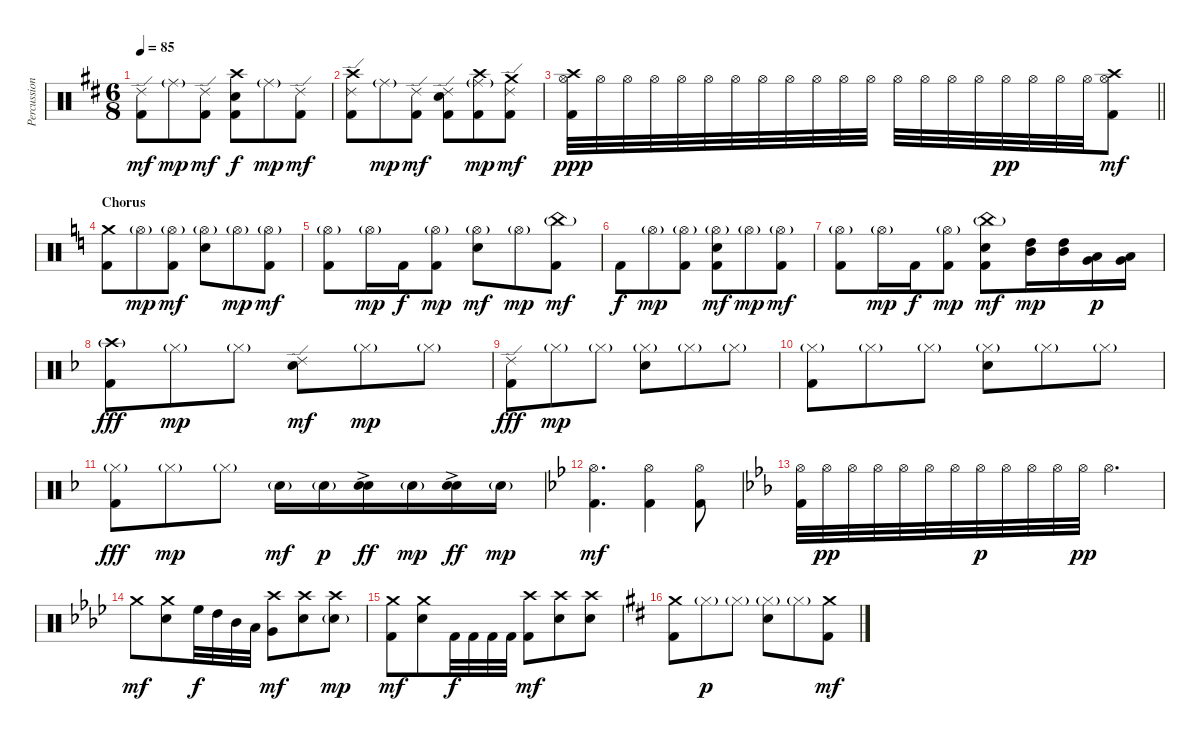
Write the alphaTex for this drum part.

\track ("Percussion (Daniele Carbonera)" "Percussion") {instrument percussion}
\staff {score}
\articulation defaults
\ts (6 8)
\tempo 85
\clef neutral
\ks bminor
("Ride (edge) 2" "Kick (hit) 2").8{dy mf} "Ride (middle)"{g}.8{dy mp} ("Ride (edge) 2" "Kick (hit) 2").8{dy mf} ("Crash high (hit)" "Electric Snare (hit)" "Kick (hit) 2").8{dy f} "Ride (middle)"{g}.8{dy mp} ("Ride (edge) 2" "Kick (hit) 2").8{dy mf} |
("Crash high (hit)" "Ride (edge) 2" "Kick (hit) 2").8 "Ride (middle)"{g}.8{dy mp} ("Ride (edge) 2" "Kick (hit) 2").8{dy mf} ("Ride (edge) 2" "Electric Snare (hit)" "Kick (hit) 2").8 ("Crash high (hit)" "Ride (middle)"{g} "Kick (hit) 2").8{dy mp} ("Crash medium (hit)" "Ride (edge) 2" "Kick (hit) 2").8{dy mf} |
\barLineRight lightlight
("Crash high (hit)" "Hi-Hat (open)" "Kick (hit) 2").32{dy ppp} "Hi-Hat (open)".32 "Hi-Hat (open)".32 "Hi-Hat (open)".32 "Hi-Hat (open)".32 "Hi-Hat (open)".32 "Hi-Hat (open)".32 "Hi-Hat (open)".32 "Hi-Hat (open)".32 "Hi-Hat (open)".32 "Hi-Hat (open)".32 "Hi-Hat (open)".32 "Hi-Hat (open)".32 "Hi-Hat (open)".32 "Hi-Hat (open)".32 "Hi-Hat (open)".32 "Hi-Hat (open)".32{dy pp} "Hi-Hat (open)".32 "Hi-Hat (open)".32 "Hi-Hat (open)".32 ("Crash high (hit)" "Hi-Hat (open)" "Kick (hit) 2").8{dy mf} |
\section ("" "Chorus")
\ks aminor
("Crash medium (hit)" "Kick (hit) 2").8 "Hi-Hat (open)"{g}.8{dy mp} ("Hi-Hat (open)"{g} "Kick (hit) 2").8{dy mf} ("Hi-Hat (open)"{g} "Electric Snare (hit)").8 "Hi-Hat (open)"{g}.8{dy mp} ("Hi-Hat (open)"{g} "Kick (hit) 2").8{dy mf} |
("Hi-Hat (open)"{g} "Kick (hit) 2").8 "Hi-Hat (open)"{g}.16{dy mp} "Kick (hit) 2".16{dy f} ("Hi-Hat (open)"{g} "Kick (hit) 2").8{dy mp} ("Hi-Hat (open)"{g} "Electric Snare (hit)").8{dy mf} "Hi-Hat (open)"{g}.8{dy mp} ("China (hit)"{g} "Kick (hit) 2").8{dy mf} |
"Kick (hit) 2".8{dy f} "Hi-Hat (open)"{g}.8{dy mp} ("Hi-Hat (open)"{g} "Kick (hit) 2").8 ("Hi-Hat (open)"{g} "Electric Snare (hit)" "Kick (hit) 2").8{dy mf} "Hi-Hat (open)"{g}.8{dy mp} ("Hi-Hat (open)"{g} "Kick (hit) 2").8{dy mf} |
("Hi-Hat (open)"{g} "Kick (hit) 2").8 "Hi-Hat (open)"{g}.16{dy mp} "Kick (hit) 2".16{dy f} ("Hi-Hat (open)"{g} "Kick (hit) 2").8{dy mp} ("China (hit)"{g} "Electric Snare (hit)" "Kick (hit) 2").8{dy mf} ("High Tom (hit)" "Mid Tom (hit)").16{dy mp} ("High Tom (hit)" "Mid Tom (hit)").16 ("Low Tom (hit)" "Very Low Tom (hit)").16{dy p} ("Low Tom (hit)" "Very Low Tom (hit)").16 |
\ks dminor
("Crash high (hit)"{g} "Kick (hit) 2").8{dy fff} "Hi-Hat (closed)"{g}.8{dy mp} "Hi-Hat (closed)"{g}.8 ("Ride (edge) 2" "Electric Snare (hit)").8{dy mf} "Hi-Hat (closed)"{g}.8{dy mp} "Hi-Hat (closed)"{g}.8 |
("Ride (edge) 2" "Kick (hit) 2").8{dy fff} "Hi-Hat (closed)"{g}.8{dy mp} "Hi-Hat (closed)"{g}.8 ("Hi-Hat (closed)"{g} "Electric Snare (hit)").8 "Hi-Hat (closed)"{g}.8 "Hi-Hat (closed)"{g}.8 |
("Hi-Hat (closed)"{g} "Kick (hit) 2").8 "Hi-Hat (closed)"{g}.8 "Hi-Hat (closed)"{g}.8 ("Hi-Hat (closed)"{g} "Electric Snare (hit)").8 "Hi-Hat (closed)"{g}.8 "Hi-Hat (closed)"{g}.8 |
("Hi-Hat (closed)"{g} "Kick (hit) 2").8{dy fff} "Hi-Hat (closed)"{g}.8{dy mp} "Hi-Hat (closed)"{g}.8 "Electric Snare (hit)"{g}.16{dy mf} "Electric Snare (hit)"{g}.16{dy p} ("Electric Snare (hit)" "Electric Snare (hit)"{ac}).16{dy ff} "Electric Snare (hit)"{g}.16{dy mp} ("Electric Snare (hit)" "Electric Snare (hit)"{ac}).16{dy ff} "Electric Snare (hit)"{g}.16{dy mp} |
\ks gminor
("Hi-Hat (open)" "Kick (hit) 2").4{d dy mf} ("Hi-Hat (open)" "Kick (hit) 2").4 ("Hi-Hat (open)" "Kick (hit) 2").8 |
\ks cminor
("Hi-Hat (open)" "Kick (hit) 2").32 "Hi-Hat (open)".32{dy pp} "Hi-Hat (open)".32 "Hi-Hat (open)".32 "Hi-Hat (open)".32 "Hi-Hat (open)".32 "Hi-Hat (open)".32 "Hi-Hat (open)".32{dy p} "Hi-Hat (open)".32 "Hi-Hat (open)".32 "Hi-Hat (open)".32 "Hi-Hat (open)".32{dy pp} "Hi-Hat (open)".4{d} |
\ks fminor "Crash medium (hit)".8{dy mf}
("Crash medium (hit)" "Electric Snare (hit)").8 "High Floor Tom (hit)".32{dy f} "High Tom (hit)".32 "Mid Tom (hit)".32 "Low Tom (hit)".32 ("Crash high (hit)" "Very Low Tom (hit)").8{dy mf} ("Crash high (hit)" "Electric Snare (hit)").8 ("Crash high (hit)" "Electric Snare (hit)"{g}).8{dy mp} |
("Crash medium (hit)" "Kick (hit) 2").8{dy mf} ("Crash medium (hit)" "Electric Snare (hit)").8 "Kick (hit) 2".32{dy f} "Kick (hit) 2".32 "Kick (hit) 2".32 "Kick (hit) 2".32 ("Crash high (hit)" "Kick (hit) 2").8{dy mf} ("Crash high (hit)" "Electric Snare (hit)").8 ("Crash high (hit)" "Electric Snare (hit)").8 |
\ks d
("Crash medium (hit)" "Kick (hit) 2").8 "Hi-Hat (closed)"{g}.8{dy p} "Hi-Hat (closed)"{g}.8 ("Hi-Hat (closed)"{g} "Electric Snare (hit)").8 "Hi-Hat (closed)"{g}.8 ("Crash medium (hit)" "Kick (hit) 2").8{dy mf}
